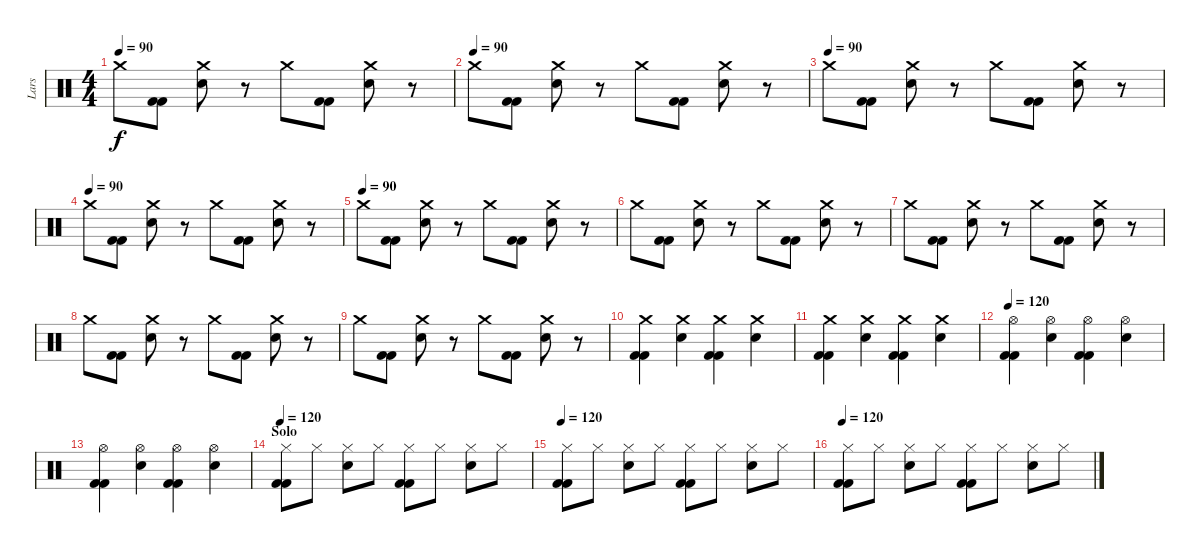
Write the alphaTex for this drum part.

\track ("Lars" "Lars") {instrument percussion}
\staff {score}
\articulation defaults
\ts (4 4)
\tempo 90
\clef neutral
\ks c "Crash medium (hit)".8{dy f}
("Kick (hit) 2" "Kick (hit) 2").8 ("Electric Snare (hit)" "Crash medium (hit)").8 r.8 "Crash medium (hit)".8 ("Kick (hit) 2" "Kick (hit) 2").8 ("Electric Snare (hit)" "Crash medium (hit)").8 r.8 |
\tempo (90)
"Crash medium (hit)".8 ("Kick (hit) 2" "Kick (hit) 2").8 ("Electric Snare (hit)" "Crash medium (hit)").8 r.8 "Crash medium (hit)".8 ("Kick (hit) 2" "Kick (hit) 2").8 ("Electric Snare (hit)" "Crash medium (hit)").8 r.8 |
\tempo (90)
"Crash medium (hit)".8 ("Kick (hit) 2" "Kick (hit) 2").8 ("Electric Snare (hit)" "Crash medium (hit)").8 r.8 "Crash medium (hit)".8 ("Kick (hit) 2" "Kick (hit) 2").8 ("Electric Snare (hit)" "Crash medium (hit)").8 r.8 |
\tempo (90)
"Crash medium (hit)".8 ("Kick (hit) 2" "Kick (hit) 2").8 ("Electric Snare (hit)" "Crash medium (hit)").8 r.8 "Crash medium (hit)".8 ("Kick (hit) 2" "Kick (hit) 2").8 ("Electric Snare (hit)" "Crash medium (hit)").8 r.8 |
\tempo (90)
"Crash medium (hit)".8 ("Kick (hit) 2" "Kick (hit) 2").8 ("Electric Snare (hit)" "Crash medium (hit)").8 r.8 "Crash medium (hit)".8 ("Kick (hit) 2" "Kick (hit) 2").8 ("Electric Snare (hit)" "Crash medium (hit)").8 r.8 |
"Crash medium (hit)".8 ("Kick (hit) 2" "Kick (hit) 2").8 ("Electric Snare (hit)" "Crash medium (hit)").8 r.8 "Crash medium (hit)".8 ("Kick (hit) 2" "Kick (hit) 2").8 ("Crash medium (hit)" "Electric Snare (hit)").8 r.8 |
"Crash medium (hit)".8 ("Kick (hit) 2" "Kick (hit) 2").8 ("Electric Snare (hit)" "Crash medium (hit)").8 r.8 "Crash medium (hit)".8 ("Kick (hit) 2" "Kick (hit) 2").8 ("Crash medium (hit)" "Electric Snare (hit)").8 r.8 |
"Crash medium (hit)".8 ("Kick (hit) 2" "Kick (hit) 2").8 ("Electric Snare (hit)" "Crash medium (hit)").8 r.8 "Crash medium (hit)".8 ("Kick (hit) 2" "Kick (hit) 2").8 ("Crash medium (hit)" "Electric Snare (hit)").8 r.8 |
"Crash medium (hit)".8 ("Kick (hit) 2" "Kick (hit) 2").8 ("Electric Snare (hit)" "Crash medium (hit)").8 r.8 "Crash medium (hit)".8 ("Kick (hit) 2" "Kick (hit) 2").8 ("Crash medium (hit)" "Electric Snare (hit)").8 r.8 |
("Crash medium (hit)" "Kick (hit) 2" "Kick (hit) 2").4 ("Electric Snare (hit)" "Crash medium (hit)").4 ("Kick (hit) 2" "Kick (hit) 2" "Crash medium (hit)").4 ("Crash medium (hit)" "Electric Snare (hit)").4 |
("Crash medium (hit)" "Kick (hit) 2" "Kick (hit) 2").4 ("Electric Snare (hit)" "Crash medium (hit)").4 ("Kick (hit) 2" "Kick (hit) 2" "Crash medium (hit)").4 ("Electric Snare (hit)" "Crash medium (hit)").4 |
\tempo 120
("Hi-Hat (open)" "Kick (hit) 2" "Kick (hit) 2").4 ("Electric Snare (hit)" "Hi-Hat (open)").4 ("Hi-Hat (open)" "Kick (hit) 2" "Kick (hit) 2").4 ("Electric Snare (hit)" "Hi-Hat (open)").4 |
("Hi-Hat (open)" "Kick (hit) 2" "Kick (hit) 2").4 ("Electric Snare (hit)" "Hi-Hat (open)").4 ("Hi-Hat (open)" "Kick (hit) 2" "Kick (hit) 2").4 ("Electric Snare (hit)" "Hi-Hat (open)").4 |
\section ("" "Solo")
\tempo 120
("Hi-Hat (closed)" "Kick (hit) 2" "Kick (hit) 2").8 "Hi-Hat (closed)".8 ("Electric Snare (hit)" "Hi-Hat (closed)").8 "Hi-Hat (closed)".8 ("Hi-Hat (closed)" "Kick (hit) 2" "Kick (hit) 2").8 "Hi-Hat (closed)".8 ("Electric Snare (hit)" "Hi-Hat (closed)").8 "Hi-Hat (closed)".8 |
\tempo 120
("Hi-Hat (closed)" "Kick (hit) 2" "Kick (hit) 2").8 "Hi-Hat (closed)".8 ("Electric Snare (hit)" "Hi-Hat (closed)").8 "Hi-Hat (closed)".8 ("Hi-Hat (closed)" "Kick (hit) 2" "Kick (hit) 2").8 "Hi-Hat (closed)".8 ("Electric Snare (hit)" "Hi-Hat (closed)").8 "Hi-Hat (closed)".8 |
\tempo 120
("Hi-Hat (closed)" "Kick (hit) 2" "Kick (hit) 2").8 "Hi-Hat (closed)".8 ("Electric Snare (hit)" "Hi-Hat (closed)").8 "Hi-Hat (closed)".8 ("Hi-Hat (closed)" "Kick (hit) 2" "Kick (hit) 2").8 "Hi-Hat (closed)".8 ("Electric Snare (hit)" "Hi-Hat (closed)").8 "Hi-Hat (closed)".8
